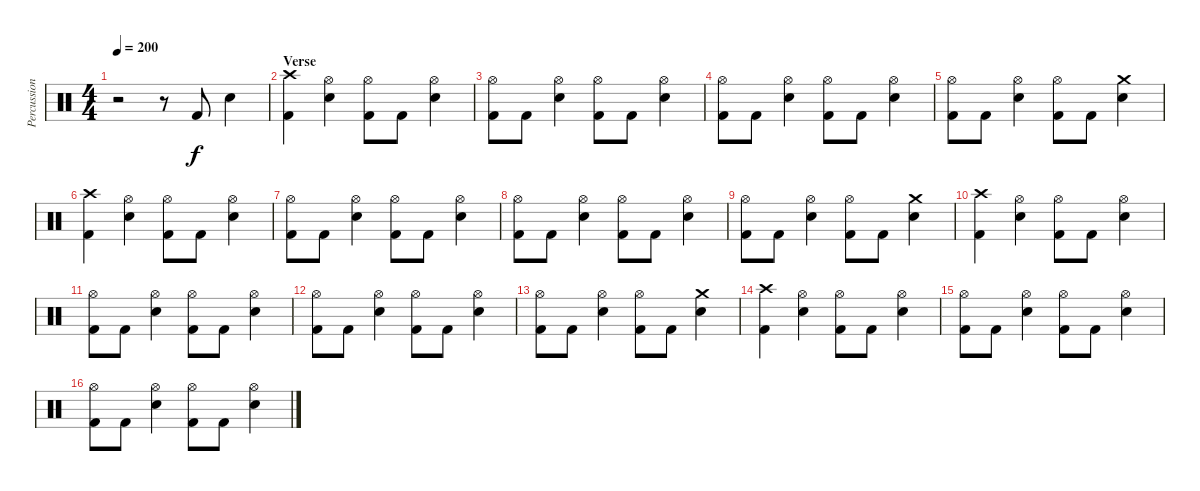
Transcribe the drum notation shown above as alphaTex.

\track ("Percussion" "Percussion") {instrument percussion}
\staff {score}
\articulation defaults
\ts (4 4)
\tempo 200
\clef neutral
\ks c
r.2{dy f} r.8 "Kick (hit) 2".8 "Snare (hit) 2".4 |
\section ("" "Verse")
("Crash high (hit)" "Kick (hit) 2").4 ("Hi-Hat (open)" "Snare (hit) 2").4 ("Hi-Hat (open)" "Kick (hit) 2").8 "Kick (hit) 2".8 ("Hi-Hat (open)" "Snare (hit) 2").4 |
("Hi-Hat (open)" "Kick (hit) 2").8 "Kick (hit) 2".8 ("Hi-Hat (open)" "Snare (hit) 2").4 ("Hi-Hat (open)" "Kick (hit) 2").8 "Kick (hit) 2".8 ("Hi-Hat (open)" "Snare (hit) 2").4 |
("Hi-Hat (open)" "Kick (hit) 2").8 "Kick (hit) 2".8 ("Hi-Hat (open)" "Snare (hit) 2").4 ("Hi-Hat (open)" "Kick (hit) 2").8 "Kick (hit) 2".8 ("Hi-Hat (open)" "Snare (hit) 2").4 |
("Hi-Hat (open)" "Kick (hit) 2").8 "Kick (hit) 2".8 ("Hi-Hat (open)" "Snare (hit) 2").4 ("Hi-Hat (open)" "Kick (hit) 2").8 "Kick (hit) 2".8 ("Crash medium (hit)" "Snare (hit) 2").4 |
("Crash high (hit)" "Kick (hit) 2").4 ("Hi-Hat (open)" "Snare (hit) 2").4 ("Hi-Hat (open)" "Kick (hit) 2").8 "Kick (hit) 2".8 ("Hi-Hat (open)" "Snare (hit) 2").4 |
("Hi-Hat (open)" "Kick (hit) 2").8 "Kick (hit) 2".8 ("Hi-Hat (open)" "Snare (hit) 2").4 ("Hi-Hat (open)" "Kick (hit) 2").8 "Kick (hit) 2".8 ("Hi-Hat (open)" "Snare (hit) 2").4 |
("Hi-Hat (open)" "Kick (hit) 2").8 "Kick (hit) 2".8 ("Hi-Hat (open)" "Snare (hit) 2").4 ("Hi-Hat (open)" "Kick (hit) 2").8 "Kick (hit) 2".8 ("Hi-Hat (open)" "Snare (hit) 2").4 |
("Hi-Hat (open)" "Kick (hit) 2").8 "Kick (hit) 2".8 ("Hi-Hat (open)" "Snare (hit) 2").4 ("Hi-Hat (open)" "Kick (hit) 2").8 "Kick (hit) 2".8 ("Crash medium (hit)" "Snare (hit) 2").4 |
("Crash high (hit)" "Kick (hit) 2").4 ("Hi-Hat (open)" "Snare (hit) 2").4 ("Hi-Hat (open)" "Kick (hit) 2").8 "Kick (hit) 2".8 ("Hi-Hat (open)" "Snare (hit) 2").4 |
("Hi-Hat (open)" "Kick (hit) 2").8 "Kick (hit) 2".8 ("Hi-Hat (open)" "Snare (hit) 2").4 ("Hi-Hat (open)" "Kick (hit) 2").8 "Kick (hit) 2".8 ("Hi-Hat (open)" "Snare (hit) 2").4 |
("Hi-Hat (open)" "Kick (hit) 2").8 "Kick (hit) 2".8 ("Hi-Hat (open)" "Snare (hit) 2").4 ("Hi-Hat (open)" "Kick (hit) 2").8 "Kick (hit) 2".8 ("Hi-Hat (open)" "Snare (hit) 2").4 |
("Hi-Hat (open)" "Kick (hit) 2").8 "Kick (hit) 2".8 ("Hi-Hat (open)" "Snare (hit) 2").4 ("Hi-Hat (open)" "Kick (hit) 2").8 "Kick (hit) 2".8 ("Crash medium (hit)" "Snare (hit) 2").4 |
("Crash high (hit)" "Kick (hit) 2").4 ("Hi-Hat (open)" "Snare (hit) 2").4 ("Hi-Hat (open)" "Kick (hit) 2").8 "Kick (hit) 2".8 ("Hi-Hat (open)" "Snare (hit) 2").4 |
("Hi-Hat (open)" "Kick (hit) 2").8 "Kick (hit) 2".8 ("Hi-Hat (open)" "Snare (hit) 2").4 ("Hi-Hat (open)" "Kick (hit) 2").8 "Kick (hit) 2".8 ("Hi-Hat (open)" "Snare (hit) 2").4 |
("Hi-Hat (open)" "Kick (hit) 2").8 "Kick (hit) 2".8 ("Hi-Hat (open)" "Snare (hit) 2").4 ("Hi-Hat (open)" "Kick (hit) 2").8 "Kick (hit) 2".8 ("Hi-Hat (open)" "Snare (hit) 2").4
